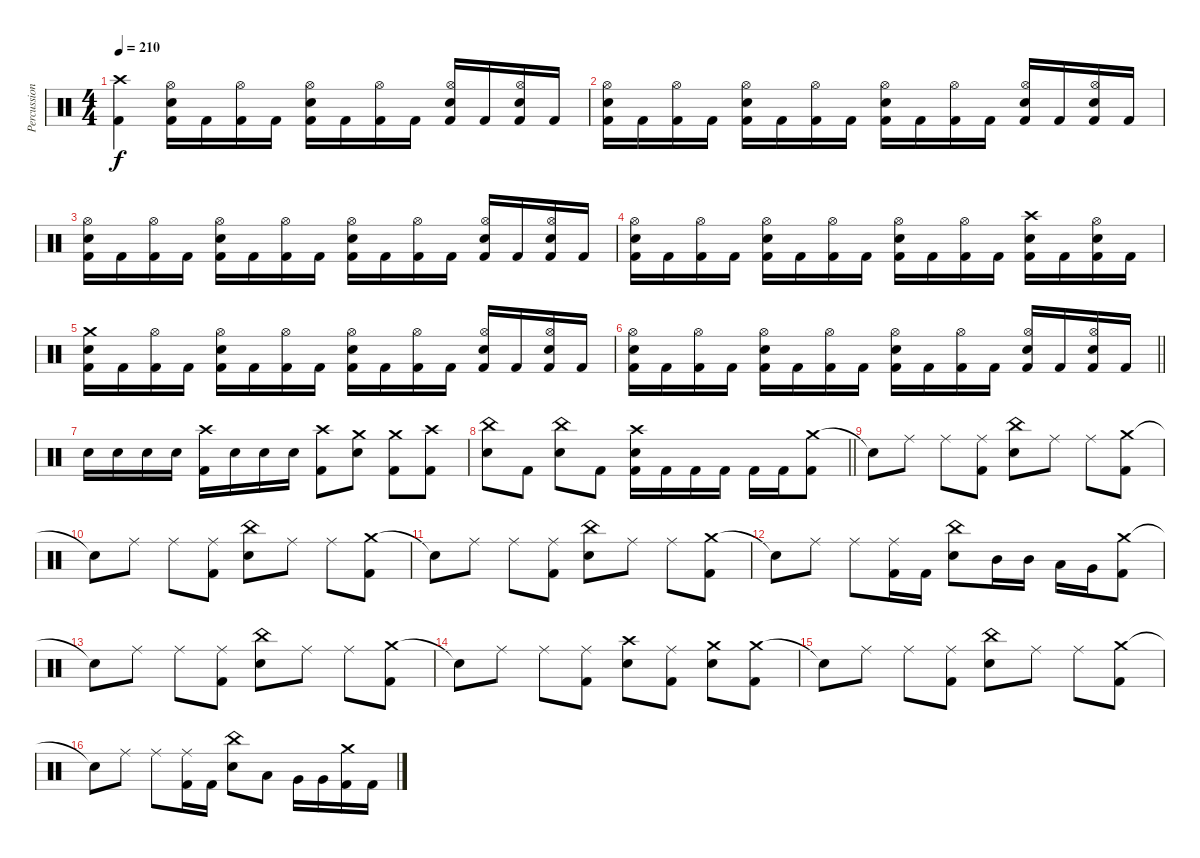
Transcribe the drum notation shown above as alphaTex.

\track ("Percussion" "Percussion") {instrument percussion}
\staff {score}
\articulation defaults
\ts (4 4)
\tempo 210
\clef neutral
\ks c
("Crash high (hit)" "Kick (hit) 2").4{dy f} ("Hi-Hat (open)" "Snare (hit) 2" "Kick (hit) 2").16 "Kick (hit) 2".16 ("Hi-Hat (open)" "Kick (hit) 2").16 "Kick (hit) 2".16 ("Hi-Hat (open)" "Snare (hit) 2" "Kick (hit) 2").16 "Kick (hit) 2".16 ("Hi-Hat (open)" "Kick (hit) 2").16 "Kick (hit) 2".16 ("Hi-Hat (open)" "Snare (hit) 2" "Kick (hit) 2").16 "Kick (hit) 2".16 ("Hi-Hat (open)" "Snare (hit) 2" "Kick (hit) 2").16 "Kick (hit) 2".16 |
("Hi-Hat (open)" "Snare (hit) 2" "Kick (hit) 2").16 "Kick (hit) 2".16 ("Hi-Hat (open)" "Kick (hit) 2").16 "Kick (hit) 2".16 ("Hi-Hat (open)" "Snare (hit) 2" "Kick (hit) 2").16 "Kick (hit) 2".16 ("Hi-Hat (open)" "Kick (hit) 2").16 "Kick (hit) 2".16 ("Hi-Hat (open)" "Snare (hit) 2" "Kick (hit) 2").16 "Kick (hit) 2".16 ("Hi-Hat (open)" "Kick (hit) 2").16 "Kick (hit) 2".16 ("Hi-Hat (open)" "Snare (hit) 2" "Kick (hit) 2").16 "Kick (hit) 2".16 ("Hi-Hat (open)" "Snare (hit) 2" "Kick (hit) 2").16 "Kick (hit) 2".16 |
("Hi-Hat (open)" "Snare (hit) 2" "Kick (hit) 2").16 "Kick (hit) 2".16 ("Hi-Hat (open)" "Kick (hit) 2").16 "Kick (hit) 2".16 ("Hi-Hat (open)" "Snare (hit) 2" "Kick (hit) 2").16 "Kick (hit) 2".16 ("Hi-Hat (open)" "Kick (hit) 2").16 "Kick (hit) 2".16 ("Hi-Hat (open)" "Snare (hit) 2" "Kick (hit) 2").16 "Kick (hit) 2".16 ("Hi-Hat (open)" "Kick (hit) 2").16 "Kick (hit) 2".16 ("Hi-Hat (open)" "Snare (hit) 2" "Kick (hit) 2").16 "Kick (hit) 2".16 ("Hi-Hat (open)" "Snare (hit) 2" "Kick (hit) 2").16 "Kick (hit) 2".16 |
("Hi-Hat (open)" "Snare (hit) 2" "Kick (hit) 2").16 "Kick (hit) 2".16 ("Hi-Hat (open)" "Kick (hit) 2").16 "Kick (hit) 2".16 ("Hi-Hat (open)" "Snare (hit) 2" "Kick (hit) 2").16 "Kick (hit) 2".16 ("Hi-Hat (open)" "Kick (hit) 2").16 "Kick (hit) 2".16 ("Hi-Hat (open)" "Snare (hit) 2" "Kick (hit) 2").16 "Kick (hit) 2".16 ("Hi-Hat (open)" "Kick (hit) 2").16 "Kick (hit) 2".16 ("Crash high (hit)" "Snare (hit) 2" "Kick (hit) 2").16 "Kick (hit) 2".16 ("Hi-Hat (open)" "Snare (hit) 2" "Kick (hit) 2").16 "Kick (hit) 2".16 |
("Crash medium (hit)" "Snare (hit) 2" "Kick (hit) 2").16 "Kick (hit) 2".16 ("Hi-Hat (open)" "Kick (hit) 2").16 "Kick (hit) 2".16 ("Hi-Hat (open)" "Snare (hit) 2" "Kick (hit) 2").16 "Kick (hit) 2".16 ("Hi-Hat (open)" "Kick (hit) 2").16 "Kick (hit) 2".16 ("Hi-Hat (open)" "Snare (hit) 2" "Kick (hit) 2").16 "Kick (hit) 2".16 ("Hi-Hat (open)" "Kick (hit) 2").16 "Kick (hit) 2".16 ("Hi-Hat (open)" "Snare (hit) 2" "Kick (hit) 2").16 "Kick (hit) 2".16 ("Hi-Hat (open)" "Snare (hit) 2" "Kick (hit) 2").16 "Kick (hit) 2".16 |
\barLineRight lightlight
("Hi-Hat (open)" "Snare (hit) 2" "Kick (hit) 2").16 "Kick (hit) 2".16 ("Hi-Hat (open)" "Kick (hit) 2").16 "Kick (hit) 2".16 ("Hi-Hat (open)" "Snare (hit) 2" "Kick (hit) 2").16 "Kick (hit) 2".16 ("Hi-Hat (open)" "Kick (hit) 2").16 "Kick (hit) 2".16 ("Hi-Hat (open)" "Snare (hit) 2" "Kick (hit) 2").16 "Kick (hit) 2".16 ("Hi-Hat (open)" "Kick (hit) 2").16 "Kick (hit) 2".16 ("Hi-Hat (open)" "Snare (hit) 2" "Kick (hit) 2").16 "Kick (hit) 2".16 ("Hi-Hat (open)" "Snare (hit) 2" "Kick (hit) 2").16 "Kick (hit) 2".16 |
"Snare (hit) 2".16 "Snare (hit) 2".16 "Snare (hit) 2".16 "Snare (hit) 2".16 ("Crash high (hit)" "Kick (hit) 2").16 "Snare (hit) 2".16 "Snare (hit) 2".16 "Snare (hit) 2".16 ("Crash high (hit)" "Kick (hit) 2").8 ("Crash medium (hit)" "Snare (hit) 2").8 ("Crash medium (hit)" "Kick (hit) 2").8 ("Crash high (hit)" "Kick (hit) 2").8 |
\barLineRight lightlight
("China (hit)" "Snare (hit) 2").8 "Kick (hit) 2".8 ("China (hit)" "Snare (hit) 2").8 "Kick (hit) 2".8 ("Kick (hit) 2" "Crash high (hit)" "Snare (hit) 2").16 "Kick (hit) 2".16 "Kick (hit) 2".16 "Kick (hit) 2".16 "Kick (hit) 2".16 "Kick (hit) 2".16 ("Crash medium (hit)" "Kick (hit) 2").8 |
"Snare (hit)"{t}.8 "Ride (middle)".8 "Ride (middle)".8 ("Ride (middle)" "Kick (hit) 2").8 ("China (hit)" "Snare (hit) 2").8 "Ride (middle)".8 "Ride (middle)".8 ("Crash medium (hit)" "Kick (hit) 2").8 |
"Snare (hit)"{t}.8 "Ride (middle)".8 "Ride (middle)".8 ("Ride (middle)" "Kick (hit) 2").8 ("China (hit)" "Snare (hit) 2").8 "Ride (middle)".8 "Ride (middle)".8 ("Crash medium (hit)" "Kick (hit) 2").8 |
"Snare (hit)"{t}.8 "Ride (middle)".8 "Ride (middle)".8 ("Ride (middle)" "Kick (hit) 2").8 ("China (hit)" "Snare (hit) 2").8 "Ride (middle)".8 "Ride (middle)".8 ("Crash medium (hit)" "Kick (hit) 2").8 |
"Snare (hit)"{t}.8 "Ride (middle)".8 "Ride (middle)".8 ("Ride (middle)" "Kick (hit) 2").16 "Kick (hit) 2".16 ("China (hit)" "Snare (hit) 2").8 "Mid Tom (hit)".16 "Mid Tom (hit)".16 "Low Tom (hit)".16 "Very Low Tom (hit)".16 ("Crash medium (hit)" "Kick (hit) 2").8 |
"Snare (hit)"{t}.8 "Ride (middle)".8 "Ride (middle)".8 ("Ride (middle)" "Kick (hit) 2").8 ("China (hit)" "Snare (hit) 2").8 "Ride (middle)".8 "Ride (middle)".8 ("Crash medium (hit)" "Kick (hit) 2").8 |
"Snare (hit)"{t}.8 "Ride (middle)".8 "Ride (middle)".8 ("Ride (middle)" "Kick (hit) 2").8 ("Crash high (hit)" "Snare (hit) 2").8 ("Ride (middle)" "Kick (hit) 2").8 ("Crash medium (hit)" "Snare (hit) 2").8 ("Crash medium (hit)" "Kick (hit) 2").8 |
"Snare (hit)"{t}.8 "Ride (middle)".8 "Ride (middle)".8 ("Ride (middle)" "Kick (hit) 2").8 ("China (hit)" "Snare (hit) 2").8 "Ride (middle)".8 "Ride (middle)".8 ("Crash medium (hit)" "Kick (hit) 2").8 |
"Snare (hit)"{t}.8 "Ride (middle)".8 "Ride (middle)".8 ("Ride (middle)" "Kick (hit) 2").16 "Kick (hit) 2".16 ("China (hit)" "Snare (hit) 2").8 "Low Tom (hit)".8 "Very Low Tom (hit)".16 "Very Low Tom (hit)".16 ("Crash medium (hit)" "Kick (hit) 2").16 "Kick (hit) 2".16
